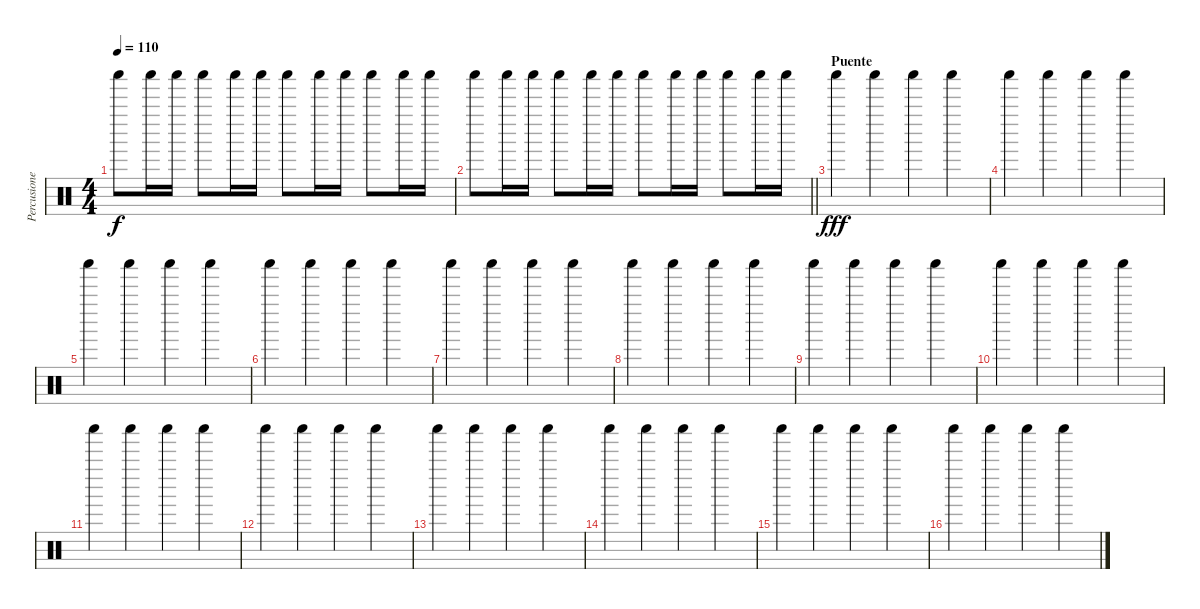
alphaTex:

\track ("Percusiones" "Percusione") {instrument percussion}
\staff {score}
\articulation defaults
\ts (4 4)
\tempo 110
\clef neutral
\ks c "Shaker (hit)".8{dy f} "Shaker (hit)".16 "Shaker (hit)".16 "Shaker (hit)".8 "Shaker (hit)".16 "Shaker (hit)".16 "Shaker (hit)".8 "Shaker (hit)".16 "Shaker (hit)".16 "Shaker (hit)".8 "Shaker (hit)".16 "Shaker (hit)".16
|
\barLineRight lightlight "Shaker (hit)".8 "Shaker (hit)".16 "Shaker (hit)".16 "Shaker (hit)".8 "Shaker (hit)".16 "Shaker (hit)".16 "Shaker (hit)".8 "Shaker (hit)".16 "Shaker (hit)".16 "Shaker (hit)".8 "Shaker (hit)".16 "Shaker (hit)".16
|
\section ("" "Puente")
"Shaker (hit)".4{dy fff} "Shaker (hit)".4 "Shaker (hit)".4 "Shaker (hit)".4 |
"Shaker (hit)".4 "Shaker (hit)".4 "Shaker (hit)".4 "Shaker (hit)".4 |
"Shaker (hit)".4 "Shaker (hit)".4 "Shaker (hit)".4 "Shaker (hit)".4 |
"Shaker (hit)".4 "Shaker (hit)".4 "Shaker (hit)".4 "Shaker (hit)".4 |
"Shaker (hit)".4 "Shaker (hit)".4 "Shaker (hit)".4 "Shaker (hit)".4 |
"Shaker (hit)".4 "Shaker (hit)".4 "Shaker (hit)".4 "Shaker (hit)".4 |
"Shaker (hit)".4 "Shaker (hit)".4 "Shaker (hit)".4 "Shaker (hit)".4 |
"Shaker (hit)".4 "Shaker (hit)".4 "Shaker (hit)".4 "Shaker (hit)".4 |
"Shaker (hit)".4 "Shaker (hit)".4 "Shaker (hit)".4 "Shaker (hit)".4 |
"Shaker (hit)".4 "Shaker (hit)".4 "Shaker (hit)".4 "Shaker (hit)".4 |
"Shaker (hit)".4 "Shaker (hit)".4 "Shaker (hit)".4 "Shaker (hit)".4 |
"Shaker (hit)".4 "Shaker (hit)".4 "Shaker (hit)".4 "Shaker (hit)".4 |
"Shaker (hit)".4 "Shaker (hit)".4 "Shaker (hit)".4 "Shaker (hit)".4 |
"Shaker (hit)".4 "Shaker (hit)".4 "Shaker (hit)".4 "Shaker (hit)".4
